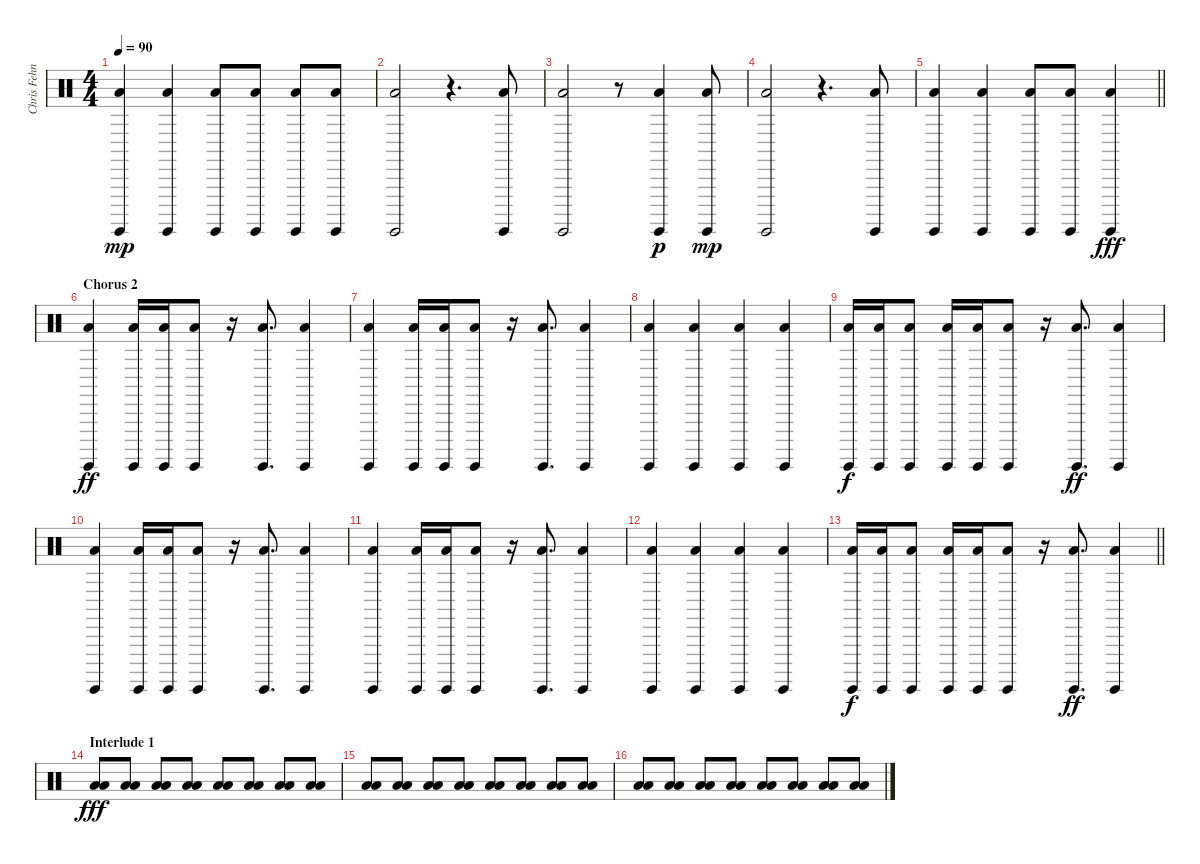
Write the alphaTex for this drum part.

\track ("Chris Fehn" "Chris Fehn") {instrument percussion}
\staff {score}
\articulation defaults
\ts (4 4)
\tempo 90
\clef neutral
\ks c
("Surdo (hit)" "Low Floor Tom (hit)").4{dy mp} ("Surdo (hit)" "Low Floor Tom (hit)").4 ("Surdo (hit)" "Low Floor Tom (hit)").8 ("Surdo (hit)" "Low Floor Tom (hit)").8 ("Surdo (hit)" "Low Floor Tom (hit)").8 ("Surdo (hit)" "Low Floor Tom (hit)").8 |
("Surdo (hit)" "Low Floor Tom (hit)").2 r.4{d} ("Surdo (hit)" "Low Floor Tom (hit)").8 |
("Surdo (hit)" "Low Floor Tom (hit)").2 r.8 ("Surdo (hit)" "Low Floor Tom (hit)").4{dy p} ("Surdo (hit)" "Low Floor Tom (hit)").8{dy mp} |
("Surdo (hit)" "Low Floor Tom (hit)").2 r.4{d} ("Surdo (hit)" "Low Floor Tom (hit)").8 |
\barLineRight lightlight
("Surdo (hit)" "Low Floor Tom (hit)").4 ("Surdo (hit)" "Low Floor Tom (hit)").4 ("Surdo (hit)" "Low Floor Tom (hit)").8 ("Surdo (hit)" "Low Floor Tom (hit)").8 ("Surdo (hit)" "Low Floor Tom (hit)").4{dy fff} |
\section ("" "Chorus 2")
("Surdo (hit)" "Low Floor Tom (hit)").4{dy ff} ("Surdo (hit)" "Low Floor Tom (hit)").16 ("Surdo (hit)" "Low Floor Tom (hit)").16 ("Surdo (hit)" "Low Floor Tom (hit)").8 r.16 ("Surdo (hit)" "Low Floor Tom (hit)").8{d} ("Surdo (hit)" "Low Floor Tom (hit)").4 |
("Surdo (hit)" "Low Floor Tom (hit)").4 ("Surdo (hit)" "Low Floor Tom (hit)").16 ("Surdo (hit)" "Low Floor Tom (hit)").16 ("Surdo (hit)" "Low Floor Tom (hit)").8 r.16 ("Surdo (hit)" "Low Floor Tom (hit)").8{d} ("Surdo (hit)" "Low Floor Tom (hit)").4 |
("Surdo (hit)" "Low Floor Tom (hit)").4 ("Surdo (hit)" "Low Floor Tom (hit)").4 ("Surdo (hit)" "Low Floor Tom (hit)").4 ("Surdo (hit)" "Low Floor Tom (hit)").4 |
("Surdo (hit)" "Low Floor Tom (hit)").16{dy f} ("Surdo (hit)" "Low Floor Tom (hit)").16 ("Surdo (hit)" "Low Floor Tom (hit)").8 ("Surdo (hit)" "Low Floor Tom (hit)").16 ("Surdo (hit)" "Low Floor Tom (hit)").16 ("Surdo (hit)" "Low Floor Tom (hit)").8 r.16 ("Surdo (hit)" "Low Floor Tom (hit)").8{d dy ff} ("Surdo (hit)" "Low Floor Tom (hit)").4 |
("Surdo (hit)" "Low Floor Tom (hit)").4 ("Surdo (hit)" "Low Floor Tom (hit)").16 ("Surdo (hit)" "Low Floor Tom (hit)").16 ("Surdo (hit)" "Low Floor Tom (hit)").8 r.16 ("Surdo (hit)" "Low Floor Tom (hit)").8{d} ("Surdo (hit)" "Low Floor Tom (hit)").4 |
("Surdo (hit)" "Low Floor Tom (hit)").4 ("Surdo (hit)" "Low Floor Tom (hit)").16 ("Surdo (hit)" "Low Floor Tom (hit)").16 ("Surdo (hit)" "Low Floor Tom (hit)").8 r.16 ("Surdo (hit)" "Low Floor Tom (hit)").8{d} ("Surdo (hit)" "Low Floor Tom (hit)").4 |
("Surdo (hit)" "Low Floor Tom (hit)").4 ("Surdo (hit)" "Low Floor Tom (hit)").4 ("Surdo (hit)" "Low Floor Tom (hit)").4 ("Surdo (hit)" "Low Floor Tom (hit)").4 |
\barLineRight lightlight
("Surdo (hit)" "Low Floor Tom (hit)").16{dy f} ("Surdo (hit)" "Low Floor Tom (hit)").16 ("Surdo (hit)" "Low Floor Tom (hit)").8 ("Surdo (hit)" "Low Floor Tom (hit)").16 ("Surdo (hit)" "Low Floor Tom (hit)").16 ("Surdo (hit)" "Low Floor Tom (hit)").8 r.16 ("Surdo (hit)" "Low Floor Tom (hit)").8{d dy ff} ("Surdo (hit)" "Low Floor Tom (hit)").4 |
\section ("" "Interlude 1")
("Low Floor Tom (hit)" "Low Floor Tom (hit)").8{dy fff} ("Low Floor Tom (hit)" "Low Floor Tom (hit)").8 ("Low Floor Tom (hit)" "Low Floor Tom (hit)").8 ("Low Floor Tom (hit)" "Low Floor Tom (hit)").8 ("Low Floor Tom (hit)" "Low Floor Tom (hit)").8 ("Low Floor Tom (hit)" "Low Floor Tom (hit)").8 ("Low Floor Tom (hit)" "Low Floor Tom (hit)").8 ("Low Floor Tom (hit)" "Low Floor Tom (hit)").8 |
("Low Floor Tom (hit)" "Low Floor Tom (hit)").8 ("Low Floor Tom (hit)" "Low Floor Tom (hit)").8 ("Low Floor Tom (hit)" "Low Floor Tom (hit)").8 ("Low Floor Tom (hit)" "Low Floor Tom (hit)").8 ("Low Floor Tom (hit)" "Low Floor Tom (hit)").8 ("Low Floor Tom (hit)" "Low Floor Tom (hit)").8 ("Low Floor Tom (hit)" "Low Floor Tom (hit)").8 ("Low Floor Tom (hit)" "Low Floor Tom (hit)").8 |
("Low Floor Tom (hit)" "Low Floor Tom (hit)").8 ("Low Floor Tom (hit)" "Low Floor Tom (hit)").8 ("Low Floor Tom (hit)" "Low Floor Tom (hit)").8 ("Low Floor Tom (hit)" "Low Floor Tom (hit)").8 ("Low Floor Tom (hit)" "Low Floor Tom (hit)").8 ("Low Floor Tom (hit)" "Low Floor Tom (hit)").8 ("Low Floor Tom (hit)" "Low Floor Tom (hit)").8 ("Low Floor Tom (hit)" "Low Floor Tom (hit)").8
